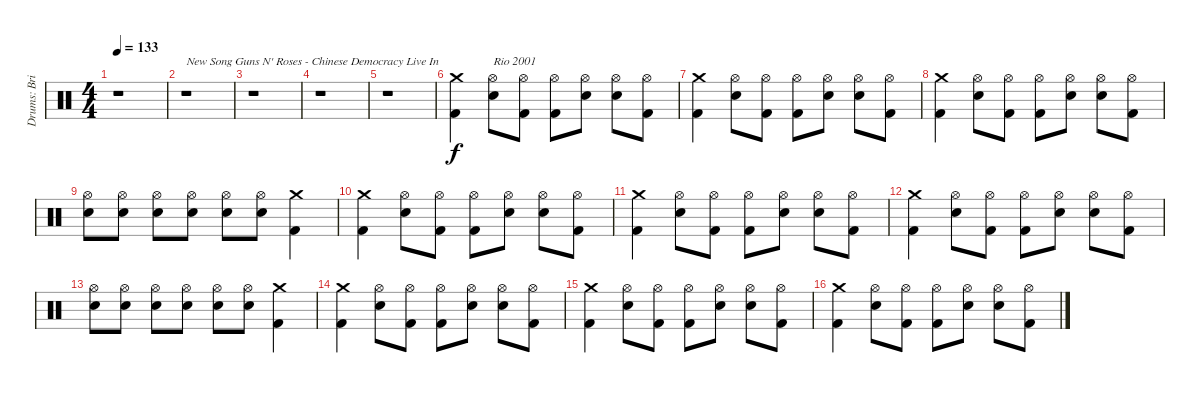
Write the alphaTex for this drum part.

\track ("Drums: Brian Mantila" "Drums: Bri") {instrument percussion}
\staff {score}
\articulation defaults
\ts (4 4)
\tempo 133
\clef neutral
\ks c
r.1{dy f} |
r.1{txt "New Song Guns N' Roses - Chinese Democracy Live In"} |
r.1 |
r.1 |
r.1 |
("Crash medium (hit)" "Kick (hit) 2").4 ("Electric Snare (hit)" "Hi-Hat (open)").8{txt "Rio 2001"} ("Kick (hit) 2" "Hi-Hat (open)").8 ("Kick (hit) 2" "Hi-Hat (open)").8 ("Electric Snare (hit)" "Hi-Hat (open)").8 ("Electric Snare (hit)" "Hi-Hat (open)").8 ("Kick (hit) 2" "Hi-Hat (open)").8 |
("Crash medium (hit)" "Kick (hit) 2").4 ("Electric Snare (hit)" "Hi-Hat (open)").8 ("Kick (hit) 2" "Hi-Hat (open)").8 ("Kick (hit) 2" "Hi-Hat (open)").8 ("Electric Snare (hit)" "Hi-Hat (open)").8 ("Electric Snare (hit)" "Hi-Hat (open)").8 ("Kick (hit) 2" "Hi-Hat (open)").8 |
("Crash medium (hit)" "Kick (hit) 2").4 ("Electric Snare (hit)" "Hi-Hat (open)").8 ("Kick (hit) 2" "Hi-Hat (open)").8 ("Kick (hit) 2" "Hi-Hat (open)").8 ("Electric Snare (hit)" "Hi-Hat (open)").8 ("Electric Snare (hit)" "Hi-Hat (open)").8 ("Kick (hit) 2" "Hi-Hat (open)").8 |
("Snare (hit) 2" "Hi-Hat (open)").8 ("Electric Snare (hit)" "Hi-Hat (open)").8 ("Electric Snare (hit)" "Hi-Hat (open)").8 ("Electric Snare (hit)" "Hi-Hat (open)").8 ("Electric Snare (hit)" "Hi-Hat (open)").8 ("Electric Snare (hit)" "Hi-Hat (open)").8 ("Crash medium (hit)" "Kick (hit) 2").4 |
("Crash medium (hit)" "Kick (hit) 2").4 ("Electric Snare (hit)" "Hi-Hat (open)").8 ("Kick (hit) 2" "Hi-Hat (open)").8 ("Kick (hit) 2" "Hi-Hat (open)").8 ("Electric Snare (hit)" "Hi-Hat (open)").8 ("Electric Snare (hit)" "Hi-Hat (open)").8 ("Kick (hit) 2" "Hi-Hat (open)").8 |
("Crash medium (hit)" "Kick (hit) 2").4 ("Electric Snare (hit)" "Hi-Hat (open)").8 ("Kick (hit) 2" "Hi-Hat (open)").8 ("Kick (hit) 2" "Hi-Hat (open)").8 ("Electric Snare (hit)" "Hi-Hat (open)").8 ("Electric Snare (hit)" "Hi-Hat (open)").8 ("Kick (hit) 2" "Hi-Hat (open)").8 |
("Crash medium (hit)" "Kick (hit) 2").4 ("Electric Snare (hit)" "Hi-Hat (open)").8 ("Kick (hit) 2" "Hi-Hat (open)").8 ("Kick (hit) 2" "Hi-Hat (open)").8 ("Electric Snare (hit)" "Hi-Hat (open)").8 ("Electric Snare (hit)" "Hi-Hat (open)").8 ("Kick (hit) 2" "Hi-Hat (open)").8 |
("Snare (hit) 2" "Hi-Hat (open)").8 ("Electric Snare (hit)" "Hi-Hat (open)").8 ("Electric Snare (hit)" "Hi-Hat (open)").8 ("Electric Snare (hit)" "Hi-Hat (open)").8 ("Electric Snare (hit)" "Hi-Hat (open)").8 ("Electric Snare (hit)" "Hi-Hat (open)").8 ("Crash medium (hit)" "Kick (hit) 2").4 |
("Crash medium (hit)" "Kick (hit) 2").4 ("Electric Snare (hit)" "Hi-Hat (open)").8 ("Kick (hit) 2" "Hi-Hat (open)").8 ("Kick (hit) 2" "Hi-Hat (open)").8 ("Electric Snare (hit)" "Hi-Hat (open)").8 ("Electric Snare (hit)" "Hi-Hat (open)").8 ("Kick (hit) 2" "Hi-Hat (open)").8 |
("Crash medium (hit)" "Kick (hit) 2").4 ("Electric Snare (hit)" "Hi-Hat (open)").8 ("Kick (hit) 2" "Hi-Hat (open)").8 ("Kick (hit) 2" "Hi-Hat (open)").8 ("Electric Snare (hit)" "Hi-Hat (open)").8 ("Electric Snare (hit)" "Hi-Hat (open)").8 ("Kick (hit) 2" "Hi-Hat (open)").8 |
("Crash medium (hit)" "Kick (hit) 2").4 ("Electric Snare (hit)" "Hi-Hat (open)").8 ("Kick (hit) 2" "Hi-Hat (open)").8 ("Kick (hit) 2" "Hi-Hat (open)").8 ("Electric Snare (hit)" "Hi-Hat (open)").8 ("Electric Snare (hit)" "Hi-Hat (open)").8 ("Kick (hit) 2" "Hi-Hat (open)").8
